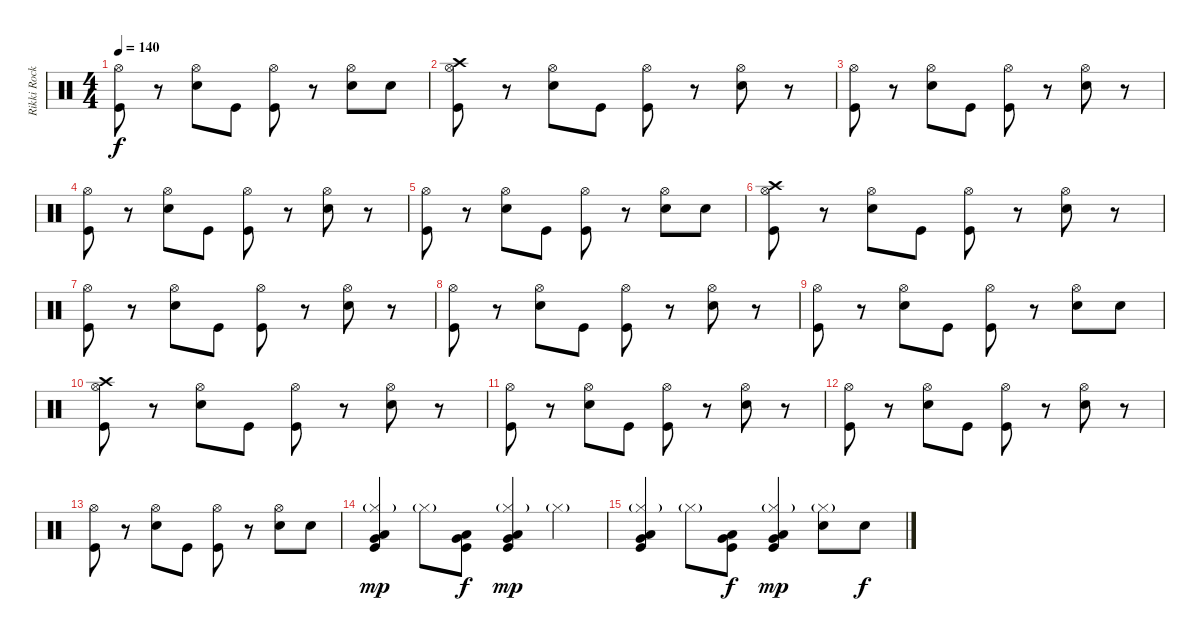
\track ("Rikki Rockett - Drums" "Rikki Rock") {instrument percussion}
\staff {score}
\articulation defaults
\ts (4 4)
\tempo 140
\clef neutral
\ks c
("Hi-Hat (open)" "Kick (hit)").8{dy f} r.8 ("Hi-Hat (open)" "Snare (hit) 2").8 "Kick (hit)".8 ("Hi-Hat (open)" "Kick (hit)").8 r.8 ("Hi-Hat (open)" "Snare (hit) 2").8 "Snare (hit) 2".8 |
("Hi-Hat (open)" "Crash high (hit)" "Kick (hit)").8 r.8 ("Hi-Hat (open)" "Snare (hit) 2").8 "Kick (hit)".8 ("Hi-Hat (open)" "Kick (hit)").8 r.8 ("Hi-Hat (open)" "Snare (hit) 2").8 r.8 |
("Hi-Hat (open)" "Kick (hit)").8 r.8 ("Hi-Hat (open)" "Snare (hit) 2").8 "Kick (hit)".8 ("Hi-Hat (open)" "Kick (hit)").8 r.8 ("Hi-Hat (open)" "Snare (hit) 2").8 r.8 |
("Hi-Hat (open)" "Kick (hit)").8 r.8 ("Hi-Hat (open)" "Snare (hit) 2").8 "Kick (hit)".8 ("Hi-Hat (open)" "Kick (hit)").8 r.8 ("Hi-Hat (open)" "Snare (hit) 2").8 r.8 |
("Hi-Hat (open)" "Kick (hit)").8 r.8 ("Hi-Hat (open)" "Snare (hit) 2").8 "Kick (hit)".8 ("Hi-Hat (open)" "Kick (hit)").8 r.8 ("Hi-Hat (open)" "Snare (hit) 2").8 "Snare (hit) 2".8 |
("Hi-Hat (open)" "Crash high (hit)" "Kick (hit)").8 r.8 ("Hi-Hat (open)" "Snare (hit) 2").8 "Kick (hit)".8 ("Hi-Hat (open)" "Kick (hit)").8 r.8 ("Hi-Hat (open)" "Snare (hit) 2").8 r.8 |
("Hi-Hat (open)" "Kick (hit)").8 r.8 ("Hi-Hat (open)" "Snare (hit) 2").8 "Kick (hit)".8 ("Hi-Hat (open)" "Kick (hit)").8 r.8 ("Hi-Hat (open)" "Snare (hit) 2").8 r.8 |
("Hi-Hat (open)" "Kick (hit)").8 r.8 ("Hi-Hat (open)" "Snare (hit) 2").8 "Kick (hit)".8 ("Hi-Hat (open)" "Kick (hit)").8 r.8 ("Hi-Hat (open)" "Snare (hit) 2").8 r.8 |
("Hi-Hat (open)" "Kick (hit)").8 r.8 ("Hi-Hat (open)" "Snare (hit) 2").8 "Kick (hit)".8 ("Hi-Hat (open)" "Kick (hit)").8 r.8 ("Hi-Hat (open)" "Snare (hit) 2").8 "Snare (hit) 2".8 |
("Hi-Hat (open)" "Crash high (hit)" "Kick (hit)").8 r.8 ("Hi-Hat (open)" "Snare (hit) 2").8 "Kick (hit)".8 ("Hi-Hat (open)" "Kick (hit)").8 r.8 ("Hi-Hat (open)" "Snare (hit) 2").8 r.8 |
("Hi-Hat (open)" "Kick (hit)").8 r.8 ("Hi-Hat (open)" "Snare (hit) 2").8 "Kick (hit)".8 ("Hi-Hat (open)" "Kick (hit)").8 r.8 ("Hi-Hat (open)" "Snare (hit) 2").8 r.8 |
("Hi-Hat (open)" "Kick (hit)").8 r.8 ("Hi-Hat (open)" "Snare (hit) 2").8 "Kick (hit)".8 ("Hi-Hat (open)" "Kick (hit)").8 r.8 ("Hi-Hat (open)" "Snare (hit) 2").8 r.8 |
("Hi-Hat (open)" "Kick (hit)").8 r.8 ("Hi-Hat (open)" "Snare (hit) 2").8 "Kick (hit)".8 ("Hi-Hat (open)" "Kick (hit)").8 r.8 ("Hi-Hat (open)" "Snare (hit) 2").8 "Snare (hit) 2".8 |
("Hi-Hat (closed)"{g} "Low Tom (hit)" "Very Low Tom (hit)" "Kick (hit)").4{dy mp} "Hi-Hat (closed)"{g}.8 ("Low Tom (hit)" "Very Low Tom (hit)" "Kick (hit)").8{dy f} ("Hi-Hat (closed)"{g} "Low Tom (hit)" "Very Low Tom (hit)" "Kick (hit)").4{dy mp} "Hi-Hat (closed)"{g}.4 |
("Hi-Hat (closed)"{g} "Low Tom (hit)" "Very Low Tom (hit)" "Kick (hit)").4 "Hi-Hat (closed)"{g}.8 ("Low Tom (hit)" "Very Low Tom (hit)" "Kick (hit)").8{dy f} ("Hi-Hat (closed)"{g} "Low Tom (hit)" "Very Low Tom (hit)" "Kick (hit)").4{dy mp} ("Hi-Hat (closed)"{g} "Snare (hit) 2").8 "Snare (hit) 2".8{dy f}
